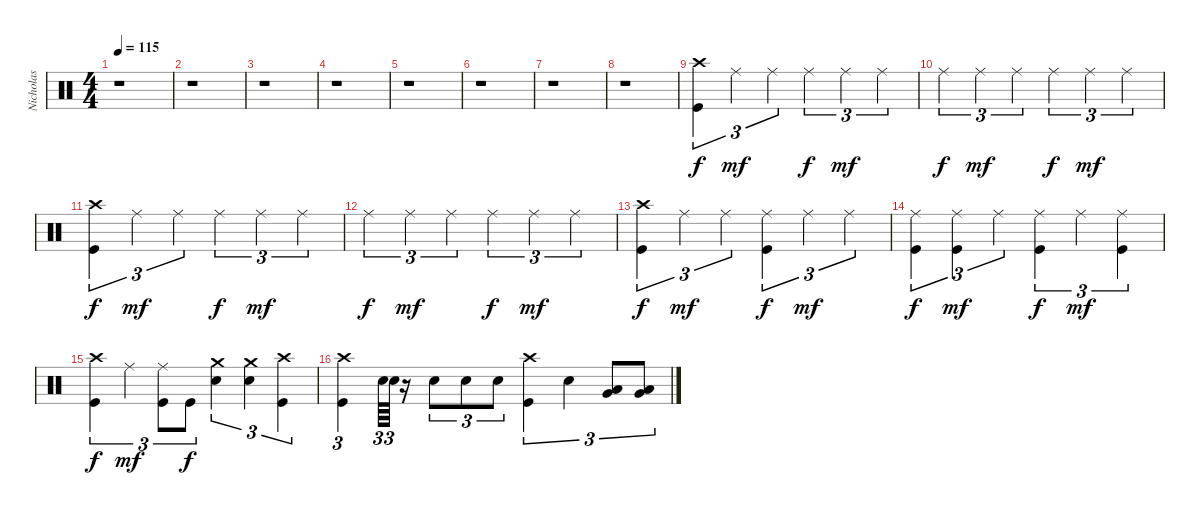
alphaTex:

\track ("Nicholas" "Nicholas") {instrument percussion}
\staff {score}
\articulation defaults
\ts (4 4)
\tempo 115
\clef neutral
\ks c
r.1{dy f} |
r.1 |
r.1 |
r.1 |
r.1 |
r.1 |
r.1 |
r.1 |
("Crash high (hit)" "Kick (hit)").4{tu (3 2)} "Ride (middle)".4{tu (3 2) dy mf} "Ride (middle)".4{tu (3 2)} "Ride (middle)".4{tu (3 2) dy f} "Ride (middle)".4{tu (3 2) dy mf} "Ride (middle)".4{tu (3 2)} |
"Ride (middle)".4{tu (3 2) dy f} "Ride (middle)".4{tu (3 2) dy mf} "Ride (middle)".4{tu (3 2)} "Ride (middle)".4{tu (3 2) dy f} "Ride (middle)".4{tu (3 2) dy mf} "Ride (middle)".4{tu (3 2)} |
("Crash high (hit)" "Kick (hit)").4{tu (3 2) dy f} "Ride (middle)".4{tu (3 2) dy mf} "Ride (middle)".4{tu (3 2)} "Ride (middle)".4{tu (3 2) dy f} "Ride (middle)".4{tu (3 2) dy mf} "Ride (middle)".4{tu (3 2)} |
"Ride (middle)".4{tu (3 2) dy f} "Ride (middle)".4{tu (3 2) dy mf} "Ride (middle)".4{tu (3 2)} "Ride (middle)".4{tu (3 2) dy f} "Ride (middle)".4{tu (3 2) dy mf} "Ride (middle)".4{tu (3 2)} |
("Crash high (hit)" "Kick (hit)").4{tu (3 2) dy f} "Ride (middle)".4{tu (3 2) dy mf} "Ride (middle)".4{tu (3 2)} ("Ride (middle)" "Kick (hit)").4{tu (3 2) dy f} "Ride (middle)".4{tu (3 2) dy mf} "Ride (middle)".4{tu (3 2)} |
("Ride (middle)" "Kick (hit)").4{tu (3 2) dy f} ("Ride (middle)" "Kick (hit)").4{tu (3 2) dy mf} "Ride (middle)".4{tu (3 2)} ("Ride (middle)" "Kick (hit)").4{tu (3 2) dy f} "Ride (middle)".4{tu (3 2) dy mf} ("Ride (middle)" "Kick (hit)").4{tu (3 2)} |
("Crash high (hit)" "Kick (hit)").4{tu (3 2) dy f} "Ride (middle)".4{tu (3 2) dy mf} ("Ride (middle)" "Kick (hit)").8{tu (3 2)} "Kick (hit)".8{tu (3 2) dy f} ("Crash medium (hit)" "Electric Snare (hit)").4{tu (3 2)} ("Crash medium (hit)" "Electric Snare (hit)").4{tu (3 2)} ("Crash high (hit)" "Kick (hit)").4{tu (3 2)} |
("Crash high (hit)" "Kick (hit)").4{tu (3 2)} "Electric Snare (hit)".64{tu (3 2)} "Electric Snare (hit)".64{tu (3 2)} r.16 "Electric Snare (hit)".8{tu (3 2)} "Electric Snare (hit)".8{tu (3 2)} "Electric Snare (hit)".8{tu (3 2)} ("Crash high (hit)" "Kick (hit)").4{tu (3 2)} "Electric Snare (hit)".4{tu (3 2)} ("Low Tom (hit)" "Very Low Tom (hit)").8{tu (3 2) bu 60} ("Low Tom (hit)" "Very Low Tom (hit)").8{tu (3 2) bu 60}
